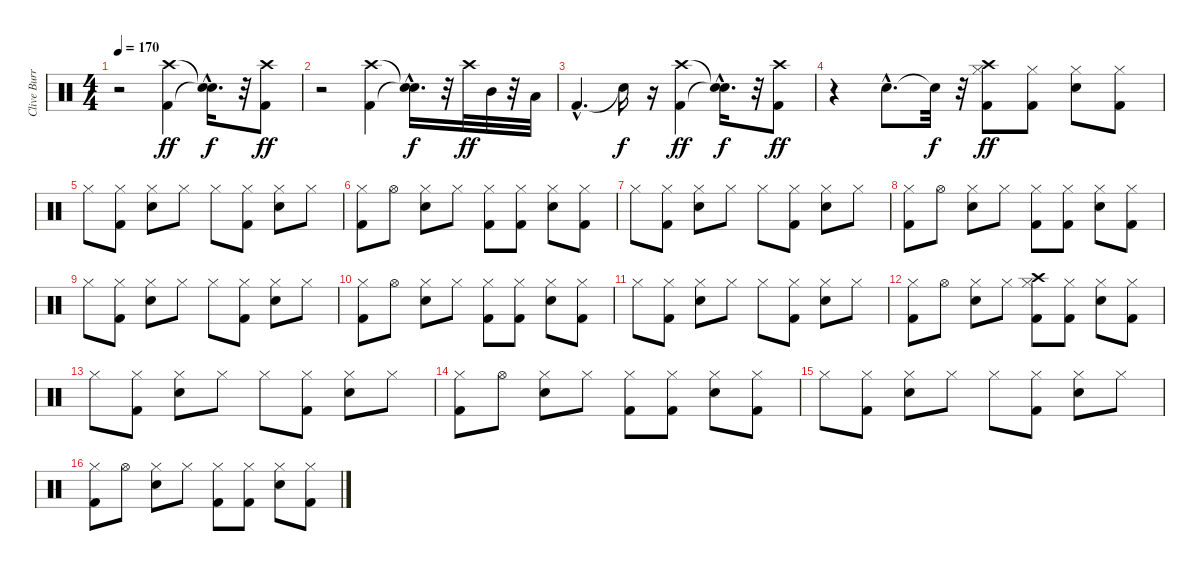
\track ("Clive Burr" "Clive Burr") {instrument percussion}
\staff {score}
\articulation defaults
\ts (4 4)
\tempo 170
\clef neutral
\ks c
r.2{dy f} ("Kick (hit) 2" "Crash high (hit)").4{dy ff} ("Snare (hit)"{hac t} "Snare (hit)"{hac t}).16{d dy f} r.32 ("Kick (hit) 2" "Crash high (hit)").8{dy ff} |
r.2 ("Kick (hit) 2" "Crash high (hit)").4 ("Snare (hit)"{hac t} "Snare (hit)"{hac t}).16{d dy f} r.32 "Crash high (hit)".32{dy ff} "Mid Tom (hit)".32 r.32 "Low Tom (hit)".32 |
"Kick (hit) 2"{hac}.4{d} "Snare (hit)"{t}.16{dy f} r.16 ("Kick (hit) 2" "Crash high (hit)").4{dy ff} ("Snare (hit)"{hac t} "Snare (hit)"{hac t}).16{d dy f} r.32 ("Kick (hit) 2" "Crash high (hit)").8{dy ff} |
r.4 "Snare (hit) 2"{hac}.8{d} "Snare (hit)"{t}.32{dy f} r.32 ("Kick (hit) 2" "Hi-Hat (closed)" "Crash high (hit)").8{dy ff} ("Kick (hit) 2" "Hi-Hat (closed)").8 ("Snare (hit) 2" "Hi-Hat (closed)").8 ("Kick (hit) 2" "Hi-Hat (closed)").8 |
"Hi-Hat (closed)".8 ("Kick (hit) 2" "Hi-Hat (closed)").8 ("Snare (hit) 2" "Hi-Hat (closed)").8 "Hi-Hat (closed)".8 "Hi-Hat (closed)".8 ("Kick (hit) 2" "Hi-Hat (closed)").8 ("Snare (hit) 2" "Hi-Hat (closed)").8 "Hi-Hat (closed)".8 |
("Kick (hit) 2" "Hi-Hat (closed)").8 "Hi-Hat (open)".8 ("Snare (hit) 2" "Hi-Hat (closed)").8 "Hi-Hat (closed)".8 ("Kick (hit) 2" "Hi-Hat (closed)").8 ("Kick (hit) 2" "Hi-Hat (closed)").8 ("Snare (hit) 2" "Hi-Hat (closed)").8 ("Kick (hit) 2" "Hi-Hat (closed)").8 |
"Hi-Hat (closed)".8 ("Kick (hit) 2" "Hi-Hat (closed)").8 ("Snare (hit) 2" "Hi-Hat (closed)").8 "Hi-Hat (closed)".8 "Hi-Hat (closed)".8 ("Kick (hit) 2" "Hi-Hat (closed)").8 ("Snare (hit) 2" "Hi-Hat (closed)").8 "Hi-Hat (closed)".8 |
("Kick (hit) 2" "Hi-Hat (closed)").8 "Hi-Hat (open)".8 ("Snare (hit) 2" "Hi-Hat (closed)").8 "Hi-Hat (closed)".8 ("Kick (hit) 2" "Hi-Hat (closed)").8 ("Kick (hit) 2" "Hi-Hat (closed)").8 ("Snare (hit) 2" "Hi-Hat (closed)").8 ("Kick (hit) 2" "Hi-Hat (closed)").8 |
"Hi-Hat (closed)".8 ("Kick (hit) 2" "Hi-Hat (closed)").8 ("Snare (hit) 2" "Hi-Hat (closed)").8 "Hi-Hat (closed)".8 "Hi-Hat (closed)".8 ("Kick (hit) 2" "Hi-Hat (closed)").8 ("Snare (hit) 2" "Hi-Hat (closed)").8 "Hi-Hat (closed)".8 |
("Kick (hit) 2" "Hi-Hat (closed)").8 "Hi-Hat (open)".8 ("Snare (hit) 2" "Hi-Hat (closed)").8 "Hi-Hat (closed)".8 ("Kick (hit) 2" "Hi-Hat (closed)").8 ("Kick (hit) 2" "Hi-Hat (closed)").8 ("Snare (hit) 2" "Hi-Hat (closed)").8 ("Kick (hit) 2" "Hi-Hat (closed)").8 |
"Hi-Hat (closed)".8 ("Kick (hit) 2" "Hi-Hat (closed)").8 ("Snare (hit) 2" "Hi-Hat (closed)").8 "Hi-Hat (closed)".8 "Hi-Hat (closed)".8 ("Kick (hit) 2" "Hi-Hat (closed)").8 ("Snare (hit) 2" "Hi-Hat (closed)").8 "Hi-Hat (closed)".8 |
("Kick (hit) 2" "Hi-Hat (closed)").8 "Hi-Hat (open)".8 ("Snare (hit) 2" "Hi-Hat (closed)").8 "Hi-Hat (closed)".8 ("Kick (hit) 2" "Hi-Hat (closed)" "Crash high (hit)").8 ("Kick (hit) 2" "Hi-Hat (closed)").8 ("Snare (hit) 2" "Hi-Hat (closed)").8 ("Kick (hit) 2" "Hi-Hat (closed)").8 |
"Hi-Hat (closed)".8 ("Kick (hit) 2" "Hi-Hat (closed)").8 ("Snare (hit) 2" "Hi-Hat (closed)").8 "Hi-Hat (closed)".8 "Hi-Hat (closed)".8 ("Kick (hit) 2" "Hi-Hat (closed)").8 ("Snare (hit) 2" "Hi-Hat (closed)").8 "Hi-Hat (closed)".8 |
("Kick (hit) 2" "Hi-Hat (closed)").8 "Hi-Hat (open)".8 ("Snare (hit) 2" "Hi-Hat (closed)").8 "Hi-Hat (closed)".8 ("Kick (hit) 2" "Hi-Hat (closed)").8 ("Kick (hit) 2" "Hi-Hat (closed)").8 ("Snare (hit) 2" "Hi-Hat (closed)").8 ("Kick (hit) 2" "Hi-Hat (closed)").8 |
"Hi-Hat (closed)".8 ("Kick (hit) 2" "Hi-Hat (closed)").8 ("Snare (hit) 2" "Hi-Hat (closed)").8 "Hi-Hat (closed)".8 "Hi-Hat (closed)".8 ("Kick (hit) 2" "Hi-Hat (closed)").8 ("Snare (hit) 2" "Hi-Hat (closed)").8 "Hi-Hat (closed)".8 |
("Kick (hit) 2" "Hi-Hat (closed)").8 "Hi-Hat (open)".8 ("Snare (hit) 2" "Hi-Hat (closed)").8 "Hi-Hat (closed)".8 ("Kick (hit) 2" "Hi-Hat (closed)").8 ("Kick (hit) 2" "Hi-Hat (closed)").8 ("Snare (hit) 2" "Hi-Hat (closed)").8 ("Kick (hit) 2" "Hi-Hat (closed)").8
